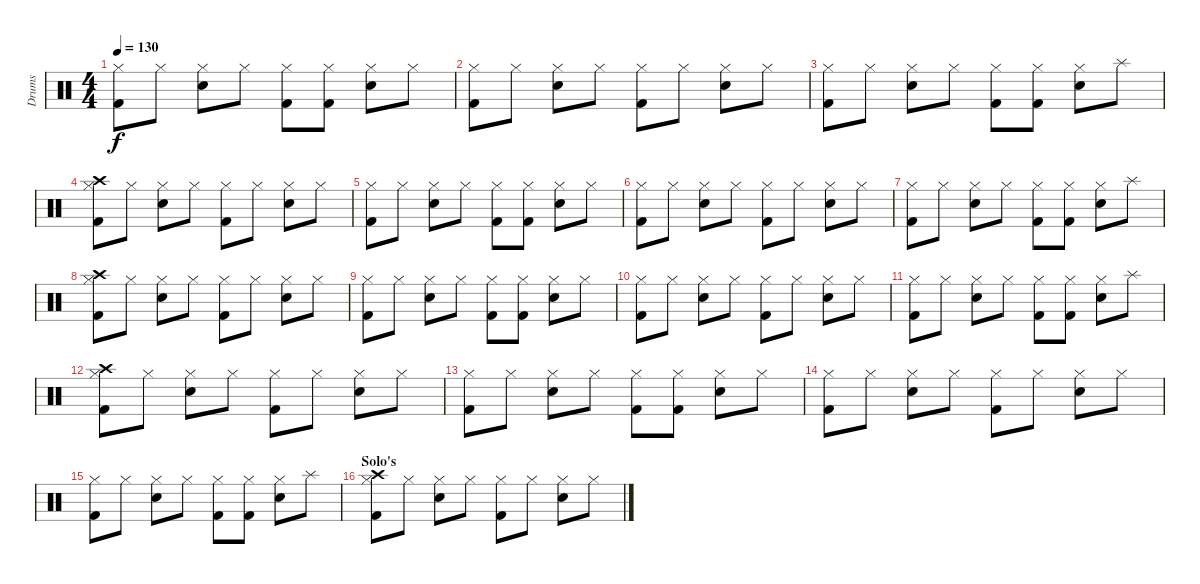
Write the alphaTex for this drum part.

\track ("Drums" "Drums") {instrument percussion}
\staff {score}
\articulation defaults
\ts (4 4)
\tempo 130
\clef neutral
\ks c
("Hi-Hat (closed)" "Kick (hit) 2").8{dy f} "Hi-Hat (closed)".8 ("Hi-Hat (closed)" "Electric Snare (hit)").8 "Hi-Hat (closed)".8 ("Hi-Hat (closed)" "Kick (hit) 2").8 ("Hi-Hat (closed)" "Kick (hit) 2").8 ("Hi-Hat (closed)" "Electric Snare (hit)").8 "Hi-Hat (closed)".8 |
("Hi-Hat (closed)" "Kick (hit) 2").8 "Hi-Hat (closed)".8 ("Hi-Hat (closed)" "Electric Snare (hit)").8 "Hi-Hat (closed)".8 ("Hi-Hat (closed)" "Kick (hit) 2").8 "Hi-Hat (closed)".8 ("Hi-Hat (closed)" "Electric Snare (hit)").8 "Hi-Hat (closed)".8 |
("Hi-Hat (closed)" "Kick (hit) 2").8 "Hi-Hat (closed)".8 ("Hi-Hat (closed)" "Electric Snare (hit)").8 "Hi-Hat (closed)".8 ("Hi-Hat (closed)" "Kick (hit) 2").8 ("Hi-Hat (closed)" "Kick (hit) 2").8 ("Hi-Hat (closed)" "Electric Snare (hit)").8 "Splash (hit)".8 |
("Crash high (hit)" "Hi-Hat (closed)" "Kick (hit) 2").8 "Hi-Hat (closed)".8 ("Hi-Hat (closed)" "Electric Snare (hit)").8 "Hi-Hat (closed)".8 ("Hi-Hat (closed)" "Kick (hit) 2").8 "Hi-Hat (closed)".8 ("Hi-Hat (closed)" "Electric Snare (hit)").8 "Hi-Hat (closed)".8 |
("Hi-Hat (closed)" "Kick (hit) 2").8 "Hi-Hat (closed)".8 ("Hi-Hat (closed)" "Electric Snare (hit)").8 "Hi-Hat (closed)".8 ("Hi-Hat (closed)" "Kick (hit) 2").8 ("Hi-Hat (closed)" "Kick (hit) 2").8 ("Hi-Hat (closed)" "Electric Snare (hit)").8 "Hi-Hat (closed)".8 |
("Hi-Hat (closed)" "Kick (hit) 2").8 "Hi-Hat (closed)".8 ("Hi-Hat (closed)" "Electric Snare (hit)").8 "Hi-Hat (closed)".8 ("Hi-Hat (closed)" "Kick (hit) 2").8 "Hi-Hat (closed)".8 ("Hi-Hat (closed)" "Electric Snare (hit)").8 "Hi-Hat (closed)".8 |
("Hi-Hat (closed)" "Kick (hit) 2").8 "Hi-Hat (closed)".8 ("Hi-Hat (closed)" "Electric Snare (hit)").8 "Hi-Hat (closed)".8 ("Hi-Hat (closed)" "Kick (hit) 2").8 ("Hi-Hat (closed)" "Kick (hit) 2").8 ("Hi-Hat (closed)" "Electric Snare (hit)").8 "Splash (hit)".8 |
("Crash high (hit)" "Hi-Hat (closed)" "Kick (hit) 2").8 "Hi-Hat (closed)".8 ("Hi-Hat (closed)" "Electric Snare (hit)").8 "Hi-Hat (closed)".8 ("Hi-Hat (closed)" "Kick (hit) 2").8 "Hi-Hat (closed)".8 ("Hi-Hat (closed)" "Electric Snare (hit)").8 "Hi-Hat (closed)".8 |
("Hi-Hat (closed)" "Kick (hit) 2").8 "Hi-Hat (closed)".8 ("Hi-Hat (closed)" "Electric Snare (hit)").8 "Hi-Hat (closed)".8 ("Hi-Hat (closed)" "Kick (hit) 2").8 ("Hi-Hat (closed)" "Kick (hit) 2").8 ("Hi-Hat (closed)" "Electric Snare (hit)").8 "Hi-Hat (closed)".8 |
("Hi-Hat (closed)" "Kick (hit) 2").8 "Hi-Hat (closed)".8 ("Hi-Hat (closed)" "Electric Snare (hit)").8 "Hi-Hat (closed)".8 ("Hi-Hat (closed)" "Kick (hit) 2").8 "Hi-Hat (closed)".8 ("Hi-Hat (closed)" "Electric Snare (hit)").8 "Hi-Hat (closed)".8 |
("Hi-Hat (closed)" "Kick (hit) 2").8 "Hi-Hat (closed)".8 ("Hi-Hat (closed)" "Electric Snare (hit)").8 "Hi-Hat (closed)".8 ("Hi-Hat (closed)" "Kick (hit) 2").8 ("Hi-Hat (closed)" "Kick (hit) 2").8 ("Hi-Hat (closed)" "Electric Snare (hit)").8 "Splash (hit)".8 |
("Crash high (hit)" "Hi-Hat (closed)" "Kick (hit) 2").8 "Hi-Hat (closed)".8 ("Hi-Hat (closed)" "Electric Snare (hit)").8 "Hi-Hat (closed)".8 ("Hi-Hat (closed)" "Kick (hit) 2").8 "Hi-Hat (closed)".8 ("Hi-Hat (closed)" "Electric Snare (hit)").8 "Hi-Hat (closed)".8 |
("Hi-Hat (closed)" "Kick (hit) 2").8 "Hi-Hat (closed)".8 ("Hi-Hat (closed)" "Electric Snare (hit)").8 "Hi-Hat (closed)".8 ("Hi-Hat (closed)" "Kick (hit) 2").8 ("Hi-Hat (closed)" "Kick (hit) 2").8 ("Hi-Hat (closed)" "Electric Snare (hit)").8 "Hi-Hat (closed)".8 |
("Hi-Hat (closed)" "Kick (hit) 2").8 "Hi-Hat (closed)".8 ("Hi-Hat (closed)" "Electric Snare (hit)").8 "Hi-Hat (closed)".8 ("Hi-Hat (closed)" "Kick (hit) 2").8 "Hi-Hat (closed)".8 ("Hi-Hat (closed)" "Electric Snare (hit)").8 "Hi-Hat (closed)".8 |
("Hi-Hat (closed)" "Kick (hit) 2").8 "Hi-Hat (closed)".8 ("Hi-Hat (closed)" "Electric Snare (hit)").8 "Hi-Hat (closed)".8 ("Hi-Hat (closed)" "Kick (hit) 2").8 ("Hi-Hat (closed)" "Kick (hit) 2").8 ("Hi-Hat (closed)" "Electric Snare (hit)").8 "Splash (hit)".8 |
\section ("" "Solo's")
("Crash high (hit)" "Hi-Hat (closed)" "Kick (hit) 2").8 "Hi-Hat (closed)".8 ("Hi-Hat (closed)" "Electric Snare (hit)").8 "Hi-Hat (closed)".8 ("Hi-Hat (closed)" "Kick (hit) 2").8 "Hi-Hat (closed)".8 ("Hi-Hat (closed)" "Electric Snare (hit)").8 "Hi-Hat (closed)".8
